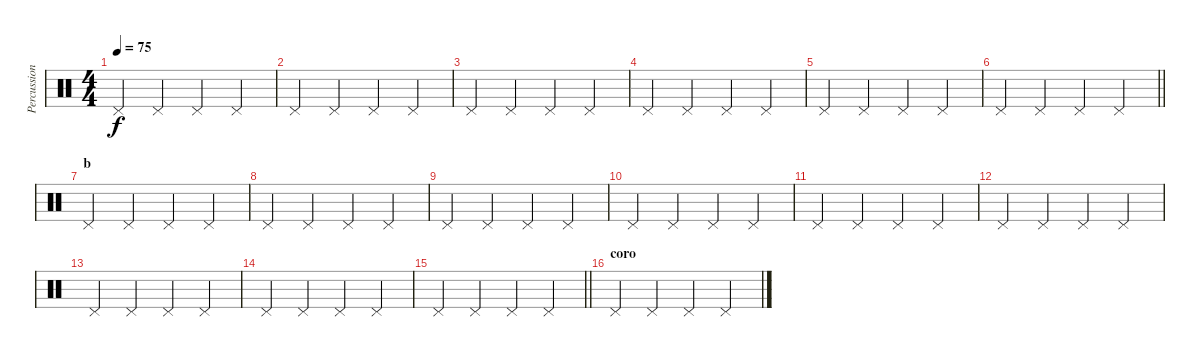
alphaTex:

\track ("Percussion" "Percussion") {instrument percussion}
\staff {score}
\articulation defaults
\ts (4 4)
\tempo 75
\clef neutral
\ks c "Pedal Hi-Hat (hit)".4{dy f} "Pedal Hi-Hat (hit)".4 "Pedal Hi-Hat (hit)".4 "Pedal Hi-Hat (hit)".4
|
"Pedal Hi-Hat (hit)".4 "Pedal Hi-Hat (hit)".4 "Pedal Hi-Hat (hit)".4 "Pedal Hi-Hat (hit)".4 |
"Pedal Hi-Hat (hit)".4 "Pedal Hi-Hat (hit)".4 "Pedal Hi-Hat (hit)".4 "Pedal Hi-Hat (hit)".4 |
"Pedal Hi-Hat (hit)".4 "Pedal Hi-Hat (hit)".4 "Pedal Hi-Hat (hit)".4 "Pedal Hi-Hat (hit)".4 |
"Pedal Hi-Hat (hit)".4 "Pedal Hi-Hat (hit)".4 "Pedal Hi-Hat (hit)".4 "Pedal Hi-Hat (hit)".4 |
\barLineRight lightlight "Pedal Hi-Hat (hit)".4 "Pedal Hi-Hat (hit)".4 "Pedal Hi-Hat (hit)".4 "Pedal Hi-Hat (hit)".4
|
\section ("" "b")
"Pedal Hi-Hat (hit)".4 "Pedal Hi-Hat (hit)".4 "Pedal Hi-Hat (hit)".4 "Pedal Hi-Hat (hit)".4 |
"Pedal Hi-Hat (hit)".4 "Pedal Hi-Hat (hit)".4 "Pedal Hi-Hat (hit)".4 "Pedal Hi-Hat (hit)".4 |
"Pedal Hi-Hat (hit)".4 "Pedal Hi-Hat (hit)".4 "Pedal Hi-Hat (hit)".4 "Pedal Hi-Hat (hit)".4 |
"Pedal Hi-Hat (hit)".4 "Pedal Hi-Hat (hit)".4 "Pedal Hi-Hat (hit)".4 "Pedal Hi-Hat (hit)".4 |
"Pedal Hi-Hat (hit)".4 "Pedal Hi-Hat (hit)".4 "Pedal Hi-Hat (hit)".4 "Pedal Hi-Hat (hit)".4 |
"Pedal Hi-Hat (hit)".4 "Pedal Hi-Hat (hit)".4 "Pedal Hi-Hat (hit)".4 "Pedal Hi-Hat (hit)".4 |
"Pedal Hi-Hat (hit)".4 "Pedal Hi-Hat (hit)".4 "Pedal Hi-Hat (hit)".4 "Pedal Hi-Hat (hit)".4 |
"Pedal Hi-Hat (hit)".4 "Pedal Hi-Hat (hit)".4 "Pedal Hi-Hat (hit)".4 "Pedal Hi-Hat (hit)".4 |
\barLineRight lightlight "Pedal Hi-Hat (hit)".4 "Pedal Hi-Hat (hit)".4 "Pedal Hi-Hat (hit)".4 "Pedal Hi-Hat (hit)".4
|
\section ("" "coro")
"Pedal Hi-Hat (hit)".4 "Pedal Hi-Hat (hit)".4 "Pedal Hi-Hat (hit)".4 "Pedal Hi-Hat (hit)".4
